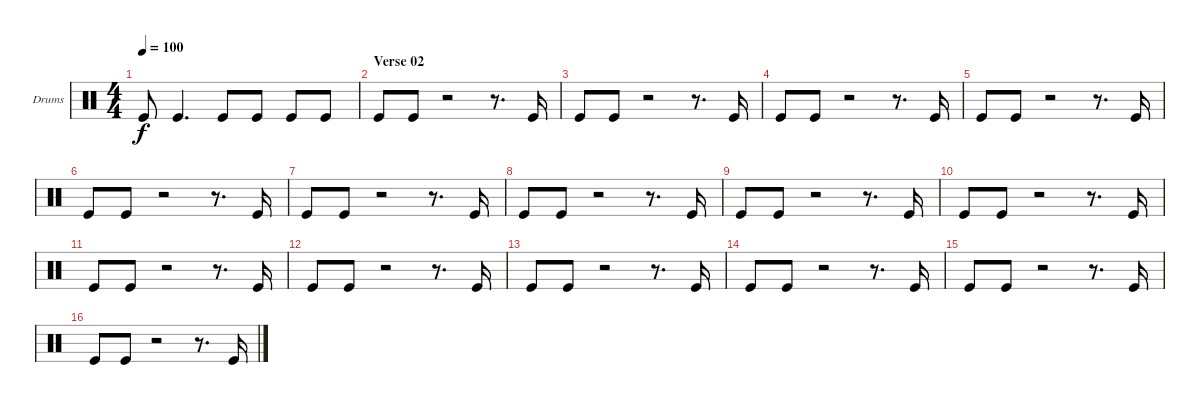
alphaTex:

\bracketExtendMode groupsimilarinstruments
\firstSystemTrackNameOrientation horizontal
\otherSystemsTrackNameOrientation horizontal
\track ("Drums overdubbed" "Drums") {instrument percussion}
\staff {score}
\articulation defaults
\ts (4 4)
\tempo 100
\clef neutral
\ks c "Kick (hit)".8{dy f} "Kick (hit)".4{d} "Kick (hit)".8 "Kick (hit)".8 "Kick (hit)".8 "Kick (hit)".8
|
\section ("" "Verse 02")
"Kick (hit)".8 "Kick (hit)".8 r.2 r.8{d} "Kick (hit)".16 |
"Kick (hit)".8 "Kick (hit)".8 r.2 r.8{d} "Kick (hit)".16 |
"Kick (hit)".8 "Kick (hit)".8 r.2 r.8{d} "Kick (hit)".16 |
"Kick (hit)".8 "Kick (hit)".8 r.2 r.8{d} "Kick (hit)".16 |
"Kick (hit)".8 "Kick (hit)".8 r.2 r.8{d} "Kick (hit)".16 |
"Kick (hit)".8 "Kick (hit)".8 r.2 r.8{d} "Kick (hit)".16 |
"Kick (hit)".8 "Kick (hit)".8 r.2 r.8{d} "Kick (hit)".16 |
"Kick (hit)".8 "Kick (hit)".8 r.2 r.8{d} "Kick (hit)".16 |
"Kick (hit)".8 "Kick (hit)".8 r.2 r.8{d} "Kick (hit)".16 |
"Kick (hit)".8 "Kick (hit)".8 r.2 r.8{d} "Kick (hit)".16 |
"Kick (hit)".8 "Kick (hit)".8 r.2 r.8{d} "Kick (hit)".16 |
"Kick (hit)".8 "Kick (hit)".8 r.2 r.8{d} "Kick (hit)".16 |
"Kick (hit)".8 "Kick (hit)".8 r.2 r.8{d} "Kick (hit)".16 |
"Kick (hit)".8 "Kick (hit)".8 r.2 r.8{d} "Kick (hit)".16 |
"Kick (hit)".8 "Kick (hit)".8 r.2 r.8{d} "Kick (hit)".16
